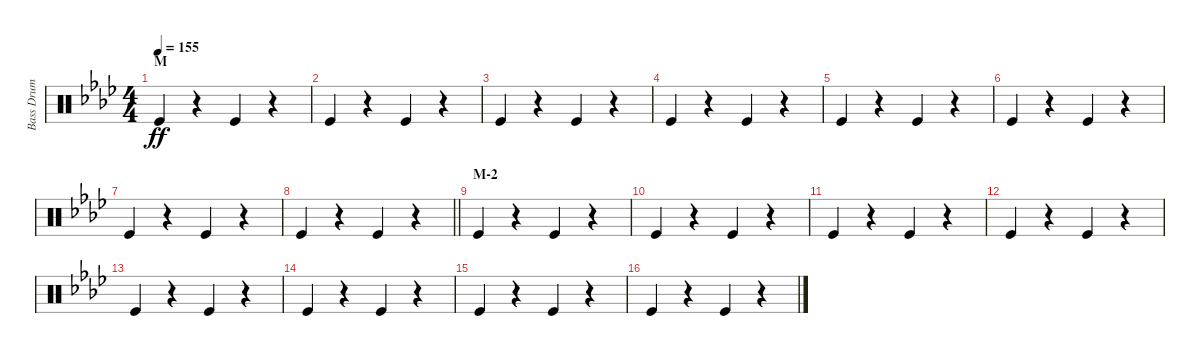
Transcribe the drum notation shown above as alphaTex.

\track ("Bass Drum" "Bass Drum") {instrument percussion}
\staff {score}
\articulation defaults
\ts (4 4)
\section ("" "M")
\tempo 155
\clef neutral
\ks ab "Kick (hit)".4{dy ff}
r.4 "Kick (hit)".4 r.4 |
"Kick (hit)".4 r.4 "Kick (hit)".4 r.4 |
"Kick (hit)".4 r.4 "Kick (hit)".4 r.4 |
"Kick (hit)".4 r.4 "Kick (hit)".4 r.4 |
"Kick (hit)".4 r.4 "Kick (hit)".4 r.4 |
"Kick (hit)".4 r.4 "Kick (hit)".4 r.4 |
"Kick (hit)".4 r.4 "Kick (hit)".4 r.4 |
\barLineRight lightlight "Kick (hit)".4
r.4 "Kick (hit)".4 r.4 |
\section ("" "M-2")
"Kick (hit)".4 r.4 "Kick (hit)".4 r.4 |
"Kick (hit)".4 r.4 "Kick (hit)".4 r.4 |
"Kick (hit)".4 r.4 "Kick (hit)".4 r.4 |
"Kick (hit)".4 r.4 "Kick (hit)".4 r.4 |
"Kick (hit)".4 r.4 "Kick (hit)".4 r.4 |
"Kick (hit)".4 r.4 "Kick (hit)".4 r.4 |
"Kick (hit)".4 r.4 "Kick (hit)".4 r.4 |
"Kick (hit)".4 r.4 "Kick (hit)".4 r.4
